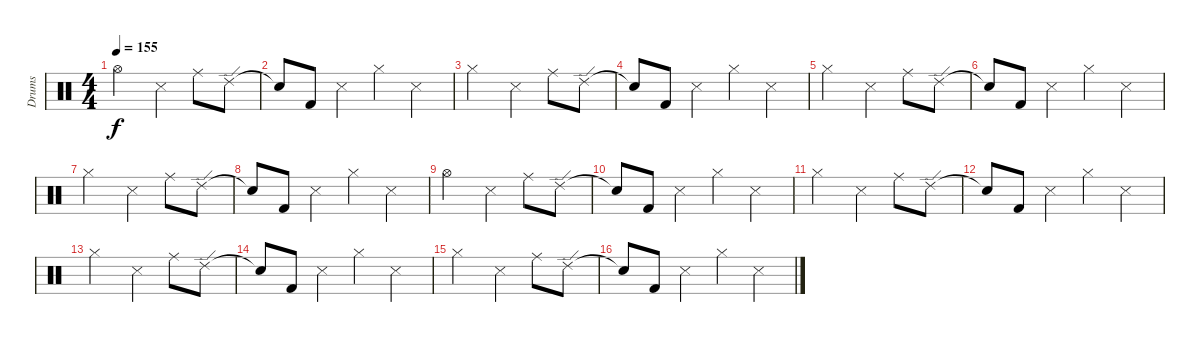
\track ("Drums" "Drums") {instrument percussion}
\staff {score}
\articulation defaults
\ts (4 4)
\tempo 155
\clef neutral
\ks c "Hi-Hat (open)".2{dy f} "Snare (side stick) 3".4 "Ride (middle)".8 "Ride (edge) 2".8
|
"Snare (hit)"{t}.8 "Kick (hit) 2".8 "Snare (side stick) 3".4 "Hi-Hat (closed)".4 "Snare (side stick) 3".4 |
"Hi-Hat (closed)".2 "Snare (side stick) 3".4 "Ride (middle)".8 "Ride (edge) 2".8 |
"Snare (hit)"{t}.8 "Kick (hit) 2".8 "Snare (side stick) 3".4 "Hi-Hat (closed)".4 "Snare (side stick) 3".4 |
"Hi-Hat (closed)".2 "Snare (side stick) 3".4 "Ride (middle)".8 "Ride (edge) 2".8 |
"Snare (hit)"{t}.8 "Kick (hit) 2".8 "Snare (side stick) 3".4 "Hi-Hat (closed)".4 "Snare (side stick) 3".4 |
"Hi-Hat (closed)".2 "Snare (side stick) 3".4 "Ride (middle)".8 "Ride (edge) 2".8 |
"Snare (hit)"{t}.8 "Kick (hit) 2".8 "Snare (side stick) 3".4 "Hi-Hat (closed)".4 "Snare (side stick) 3".4 |
"Hi-Hat (open)".2 "Snare (side stick) 3".4 "Ride (middle)".8 "Ride (edge) 2".8 |
"Snare (hit)"{t}.8 "Kick (hit) 2".8 "Snare (side stick) 3".4 "Hi-Hat (closed)".4 "Snare (side stick) 3".4 |
"Hi-Hat (closed)".2 "Snare (side stick) 3".4 "Ride (middle)".8 "Ride (edge) 2".8 |
"Snare (hit)"{t}.8 "Kick (hit) 2".8 "Snare (side stick) 3".4 "Hi-Hat (closed)".4 "Snare (side stick) 3".4 |
"Hi-Hat (closed)".2 "Snare (side stick) 3".4 "Ride (middle)".8 "Ride (edge) 2".8 |
"Snare (hit)"{t}.8 "Kick (hit) 2".8 "Snare (side stick) 3".4 "Hi-Hat (closed)".4 "Snare (side stick) 3".4 |
"Hi-Hat (closed)".2 "Snare (side stick) 3".4 "Ride (middle)".8 "Ride (edge) 2".8 |
"Snare (hit)"{t}.8 "Kick (hit) 2".8 "Snare (side stick) 3".4 "Hi-Hat (closed)".4 "Snare (side stick) 3".4
